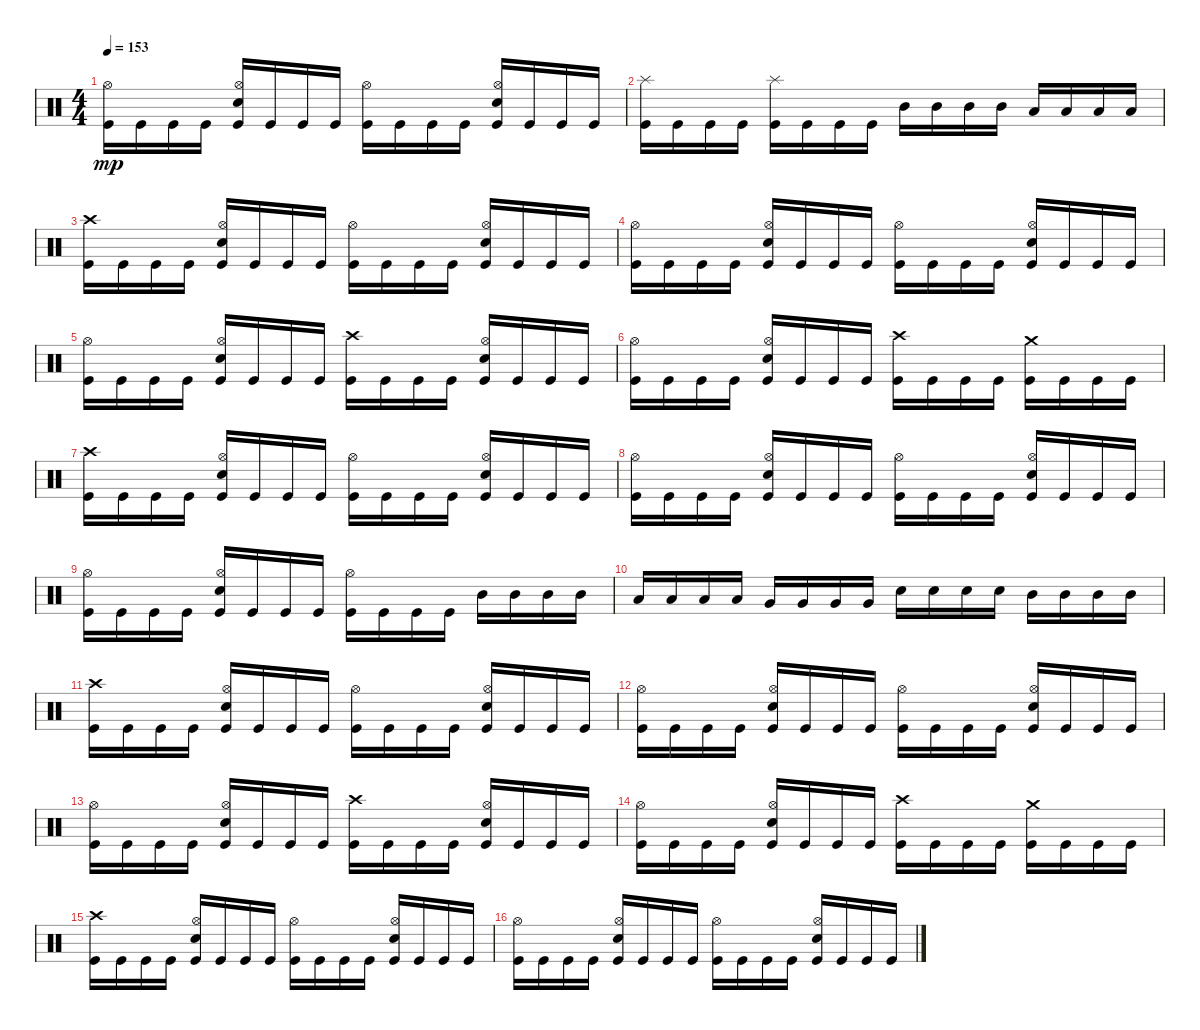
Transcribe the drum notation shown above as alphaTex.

\track "" {instrument percussion}
\staff {score}
\articulation defaults
\ts (4 4)
\tempo 153
\clef neutral
\ks c
("Kick (hit)" "Hi-Hat (open)").16{dy mp} "Kick (hit)".16 "Kick (hit)".16 "Kick (hit)".16 ("Kick (hit)" "Snare (hit) 2" "Hi-Hat (open)").16 "Kick (hit)".16 "Kick (hit)".16 "Kick (hit)".16 ("Kick (hit)" "Hi-Hat (open)").16 "Kick (hit)".16 "Kick (hit)".16 "Kick (hit)".16 ("Kick (hit)" "Snare (hit) 2" "Hi-Hat (open)").16 "Kick (hit)".16 "Kick (hit)".16 "Kick (hit)".16 |
("Splash (hit)" "Kick (hit)").16 "Kick (hit)".16 "Kick (hit)".16 "Kick (hit)".16 ("Splash (hit)" "Kick (hit)").16 "Kick (hit)".16 "Kick (hit)".16 "Kick (hit)".16 "Mid Tom (hit)".16 "Mid Tom (hit)".16 "Mid Tom (hit)".16 "Mid Tom (hit)".16 "Low Tom (hit)".16 "Low Tom (hit)".16 "Low Tom (hit)".16 "Low Tom (hit)".16 |
("Kick (hit)" "Crash high (hit)").16 "Kick (hit)".16 "Kick (hit)".16 "Kick (hit)".16 ("Kick (hit)" "Snare (hit) 2" "Hi-Hat (open)").16 "Kick (hit)".16 "Kick (hit)".16 "Kick (hit)".16 ("Kick (hit)" "Hi-Hat (open)").16 "Kick (hit)".16 "Kick (hit)".16 "Kick (hit)".16 ("Kick (hit)" "Snare (hit) 2" "Hi-Hat (open)").16 "Kick (hit)".16 "Kick (hit)".16 "Kick (hit)".16 |
("Kick (hit)" "Hi-Hat (open)").16 "Kick (hit)".16 "Kick (hit)".16 "Kick (hit)".16 ("Kick (hit)" "Snare (hit) 2" "Hi-Hat (open)").16 "Kick (hit)".16 "Kick (hit)".16 "Kick (hit)".16 ("Kick (hit)" "Hi-Hat (open)").16 "Kick (hit)".16 "Kick (hit)".16 "Kick (hit)".16 ("Kick (hit)" "Snare (hit) 2" "Hi-Hat (open)").16 "Kick (hit)".16 "Kick (hit)".16 "Kick (hit)".16 |
("Kick (hit)" "Hi-Hat (open)").16 "Kick (hit)".16 "Kick (hit)".16 "Kick (hit)".16 ("Kick (hit)" "Snare (hit) 2" "Hi-Hat (open)").16 "Kick (hit)".16 "Kick (hit)".16 "Kick (hit)".16 ("Kick (hit)" "Crash high (hit)").16 "Kick (hit)".16 "Kick (hit)".16 "Kick (hit)".16 ("Kick (hit)" "Snare (hit) 2" "Hi-Hat (open)").16 "Kick (hit)".16 "Kick (hit)".16 "Kick (hit)".16 |
("Hi-Hat (open)" "Kick (hit)").16 "Kick (hit)".16 "Kick (hit)".16 "Kick (hit)".16 ("Kick (hit)" "Snare (hit) 2" "Hi-Hat (open)").16 "Kick (hit)".16 "Kick (hit)".16 "Kick (hit)".16 ("Kick (hit)" "Crash high (hit)").16 "Kick (hit)".16 "Kick (hit)".16 "Kick (hit)".16 ("Kick (hit)" "Crash medium (hit)").16 "Kick (hit)".16 "Kick (hit)".16 "Kick (hit)".16 |
("Kick (hit)" "Crash high (hit)").16 "Kick (hit)".16 "Kick (hit)".16 "Kick (hit)".16 ("Kick (hit)" "Snare (hit) 2" "Hi-Hat (open)").16 "Kick (hit)".16 "Kick (hit)".16 "Kick (hit)".16 ("Kick (hit)" "Hi-Hat (open)").16 "Kick (hit)".16 "Kick (hit)".16 "Kick (hit)".16 ("Kick (hit)" "Snare (hit) 2" "Hi-Hat (open)").16 "Kick (hit)".16 "Kick (hit)".16 "Kick (hit)".16 |
("Kick (hit)" "Hi-Hat (open)").16 "Kick (hit)".16 "Kick (hit)".16 "Kick (hit)".16 ("Kick (hit)" "Snare (hit) 2" "Hi-Hat (open)").16 "Kick (hit)".16 "Kick (hit)".16 "Kick (hit)".16 ("Kick (hit)" "Hi-Hat (open)").16 "Kick (hit)".16 "Kick (hit)".16 "Kick (hit)".16 ("Kick (hit)" "Snare (hit) 2" "Hi-Hat (open)").16 "Kick (hit)".16 "Kick (hit)".16 "Kick (hit)".16 |
("Kick (hit)" "Hi-Hat (open)").16 "Kick (hit)".16 "Kick (hit)".16 "Kick (hit)".16 ("Kick (hit)" "Snare (hit) 2" "Hi-Hat (open)").16 "Kick (hit)".16 "Kick (hit)".16 "Kick (hit)".16 ("Kick (hit)" "Hi-Hat (open)").16 "Kick (hit)".16 "Kick (hit)".16 "Kick (hit)".16 "Mid Tom (hit)".16 "Mid Tom (hit)".16 "Mid Tom (hit)".16 "Mid Tom (hit)".16 |
"Low Tom (hit)".16 "Low Tom (hit)".16 "Low Tom (hit)".16 "Low Tom (hit)".16 "Very Low Tom (hit)".16 "Very Low Tom (hit)".16 "Very Low Tom (hit)".16 "Very Low Tom (hit)".16 "Snare (hit) 2".16 "Snare (hit) 2".16 "Snare (hit) 2".16 "Snare (hit) 2".16 "Mid Tom (hit)".16 "Mid Tom (hit)".16 "Mid Tom (hit)".16 "Mid Tom (hit)".16 |
("Kick (hit)" "Crash high (hit)").16 "Kick (hit)".16 "Kick (hit)".16 "Kick (hit)".16 ("Kick (hit)" "Snare (hit) 2" "Hi-Hat (open)").16 "Kick (hit)".16 "Kick (hit)".16 "Kick (hit)".16 ("Kick (hit)" "Hi-Hat (open)").16 "Kick (hit)".16 "Kick (hit)".16 "Kick (hit)".16 ("Kick (hit)" "Snare (hit) 2" "Hi-Hat (open)").16 "Kick (hit)".16 "Kick (hit)".16 "Kick (hit)".16 |
("Kick (hit)" "Hi-Hat (open)").16 "Kick (hit)".16 "Kick (hit)".16 "Kick (hit)".16 ("Kick (hit)" "Snare (hit) 2" "Hi-Hat (open)").16 "Kick (hit)".16 "Kick (hit)".16 "Kick (hit)".16 ("Kick (hit)" "Hi-Hat (open)").16 "Kick (hit)".16 "Kick (hit)".16 "Kick (hit)".16 ("Kick (hit)" "Hi-Hat (open)" "Snare (hit) 2").16 "Kick (hit)".16 "Kick (hit)".16 "Kick (hit)".16 |
("Kick (hit)" "Hi-Hat (open)").16 "Kick (hit)".16 "Kick (hit)".16 "Kick (hit)".16 ("Kick (hit)" "Snare (hit) 2" "Hi-Hat (open)").16 "Kick (hit)".16 "Kick (hit)".16 "Kick (hit)".16 ("Kick (hit)" "Crash high (hit)").16 "Kick (hit)".16 "Kick (hit)".16 "Kick (hit)".16 ("Kick (hit)" "Snare (hit) 2" "Hi-Hat (open)").16 "Kick (hit)".16 "Kick (hit)".16 "Kick (hit)".16 |
("Hi-Hat (open)" "Kick (hit)").16 "Kick (hit)".16 "Kick (hit)".16 "Kick (hit)".16 ("Kick (hit)" "Snare (hit) 2" "Hi-Hat (open)").16 "Kick (hit)".16 "Kick (hit)".16 "Kick (hit)".16 ("Kick (hit)" "Crash high (hit)").16 "Kick (hit)".16 "Kick (hit)".16 "Kick (hit)".16 ("Kick (hit)" "Crash medium (hit)").16 "Kick (hit)".16 "Kick (hit)".16 "Kick (hit)".16 |
("Kick (hit)" "Crash high (hit)").16 "Kick (hit)".16 "Kick (hit)".16 "Kick (hit)".16 ("Kick (hit)" "Snare (hit) 2" "Hi-Hat (open)").16 "Kick (hit)".16 "Kick (hit)".16 "Kick (hit)".16 ("Kick (hit)" "Hi-Hat (open)").16 "Kick (hit)".16 "Kick (hit)".16 "Kick (hit)".16 ("Kick (hit)" "Snare (hit) 2" "Hi-Hat (open)").16 "Kick (hit)".16 "Kick (hit)".16 "Kick (hit)".16 |
("Kick (hit)" "Hi-Hat (open)").16 "Kick (hit)".16 "Kick (hit)".16 "Kick (hit)".16 ("Kick (hit)" "Snare (hit) 2" "Hi-Hat (open)").16 "Kick (hit)".16 "Kick (hit)".16 "Kick (hit)".16 ("Kick (hit)" "Hi-Hat (open)").16 "Kick (hit)".16 "Kick (hit)".16 "Kick (hit)".16 ("Kick (hit)" "Snare (hit) 2" "Hi-Hat (open)").16 "Kick (hit)".16 "Kick (hit)".16 "Kick (hit)".16
